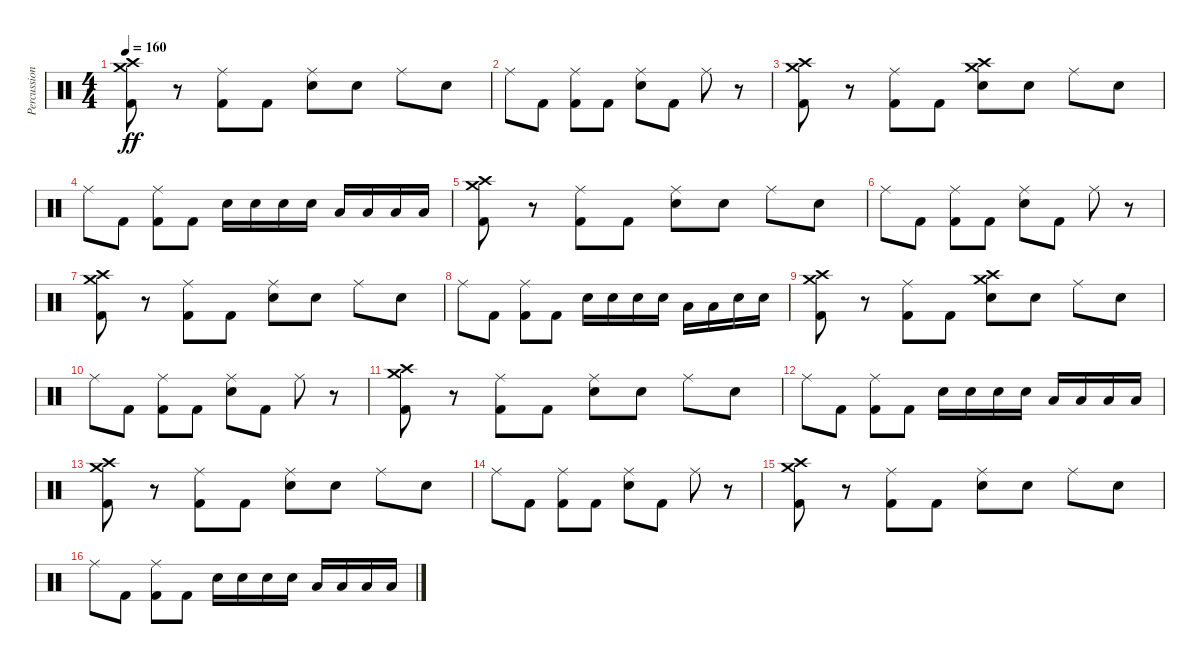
\track ("Percussion" "Percussion") {instrument percussion}
\staff {score}
\articulation defaults
\ts (4 4)
\tempo 160
\clef neutral
\ks c
("Kick (hit) 2" "Crash medium (hit)" "Crash high (hit)").8{dy ff} r.8 ("Kick (hit) 2" "Ride (middle)").8 "Kick (hit) 2".8 ("Electric Snare (hit)" "Ride (middle)").8 "Electric Snare (hit)".8 "Ride (middle)".8 "Electric Snare (hit)".8 |
"Ride (middle)".8 "Kick (hit) 2".8 ("Kick (hit) 2" "Ride (middle)").8 "Kick (hit) 2".8 ("Electric Snare (hit)" "Ride (middle)").8 "Kick (hit) 2".8 "Ride (middle)".8 r.8 |
("Kick (hit) 2" "Crash medium (hit)" "Crash high (hit)").8 r.8 ("Kick (hit) 2" "Ride (middle)").8 "Kick (hit) 2".8 ("Crash medium (hit)" "Crash high (hit)" "Electric Snare (hit)").8 "Electric Snare (hit)".8 "Ride (middle)".8 "Electric Snare (hit)".8 |
"Ride (middle)".8 "Kick (hit) 2".8 ("Kick (hit) 2" "Ride (middle)").8 "Kick (hit) 2".8 "Electric Snare (hit)".16 "Electric Snare (hit)".16 "Electric Snare (hit)".16 "Electric Snare (hit)".16 "Low Tom (hit)".16 "Low Tom (hit)".16 "Low Tom (hit)".16 "Low Tom (hit)".16 |
("Kick (hit) 2" "Crash medium (hit)" "Crash high (hit)").8 r.8 ("Kick (hit) 2" "Ride (middle)").8 "Kick (hit) 2".8 ("Electric Snare (hit)" "Ride (middle)").8 "Electric Snare (hit)".8 "Ride (middle)".8 "Electric Snare (hit)".8 |
"Ride (middle)".8 "Kick (hit) 2".8 ("Kick (hit) 2" "Ride (middle)").8 "Kick (hit) 2".8 ("Electric Snare (hit)" "Ride (middle)").8 "Kick (hit) 2".8 "Ride (middle)".8 r.8 |
("Kick (hit) 2" "Crash medium (hit)" "Crash high (hit)").8 r.8 ("Kick (hit) 2" "Ride (middle)").8 "Kick (hit) 2".8 ("Electric Snare (hit)" "Ride (middle)").8 "Electric Snare (hit)".8 "Ride (middle)".8 "Electric Snare (hit)".8 |
"Ride (middle)".8 "Kick (hit) 2".8 ("Kick (hit) 2" "Ride (middle)").8 "Kick (hit) 2".8 "Electric Snare (hit)".16 "Electric Snare (hit)".16 "Electric Snare (hit)".16 "Electric Snare (hit)".16 "Low Floor Tom (hit)".16 "Low Floor Tom (hit)".16 "Electric Snare (hit)".16 "Electric Snare (hit)".16 |
("Kick (hit) 2" "Crash medium (hit)" "Crash high (hit)").8 r.8 ("Kick (hit) 2" "Ride (middle)").8 "Kick (hit) 2".8 ("Crash high (hit)" "Crash medium (hit)" "Electric Snare (hit)").8 "Electric Snare (hit)".8 "Ride (middle)".8 "Electric Snare (hit)".8 |
"Ride (middle)".8 "Kick (hit) 2".8 ("Kick (hit) 2" "Ride (middle)").8 "Kick (hit) 2".8 ("Electric Snare (hit)" "Ride (middle)").8 "Kick (hit) 2".8 "Ride (middle)".8 r.8 |
("Kick (hit) 2" "Crash medium (hit)" "Crash high (hit)").8 r.8 ("Kick (hit) 2" "Ride (middle)").8 "Kick (hit) 2".8 ("Electric Snare (hit)" "Ride (middle)").8 "Electric Snare (hit)".8 "Ride (middle)".8 "Electric Snare (hit)".8 |
"Ride (middle)".8 "Kick (hit) 2".8 ("Kick (hit) 2" "Ride (middle)").8 "Kick (hit) 2".8 "Electric Snare (hit)".16 "Electric Snare (hit)".16 "Electric Snare (hit)".16 "Electric Snare (hit)".16 "Low Floor Tom (hit)".16 "Low Floor Tom (hit)".16 "Low Floor Tom (hit)".16 "Low Floor Tom (hit)".16 |
("Kick (hit) 2" "Crash medium (hit)" "Crash high (hit)").8 r.8 ("Kick (hit) 2" "Ride (middle)").8 "Kick (hit) 2".8 ("Electric Snare (hit)" "Ride (middle)").8 "Electric Snare (hit)".8 "Ride (middle)".8 "Electric Snare (hit)".8 |
"Ride (middle)".8 "Kick (hit) 2".8 ("Kick (hit) 2" "Ride (middle)").8 "Kick (hit) 2".8 ("Electric Snare (hit)" "Ride (middle)").8 "Kick (hit) 2".8 "Ride (middle)".8 r.8 |
("Kick (hit) 2" "Crash medium (hit)" "Crash high (hit)").8 r.8 ("Kick (hit) 2" "Ride (middle)").8 "Kick (hit) 2".8 ("Electric Snare (hit)" "Ride (middle)").8 "Electric Snare (hit)".8 "Ride (middle)".8 "Electric Snare (hit)".8 |
"Ride (middle)".8 "Kick (hit) 2".8 ("Kick (hit) 2" "Ride (middle)").8 "Kick (hit) 2".8 "Electric Snare (hit)".16 "Electric Snare (hit)".16 "Electric Snare (hit)".16 "Electric Snare (hit)".16 "Low Tom (hit)".16 "Low Tom (hit)".16 "Low Tom (hit)".16 "Low Tom (hit)".16
